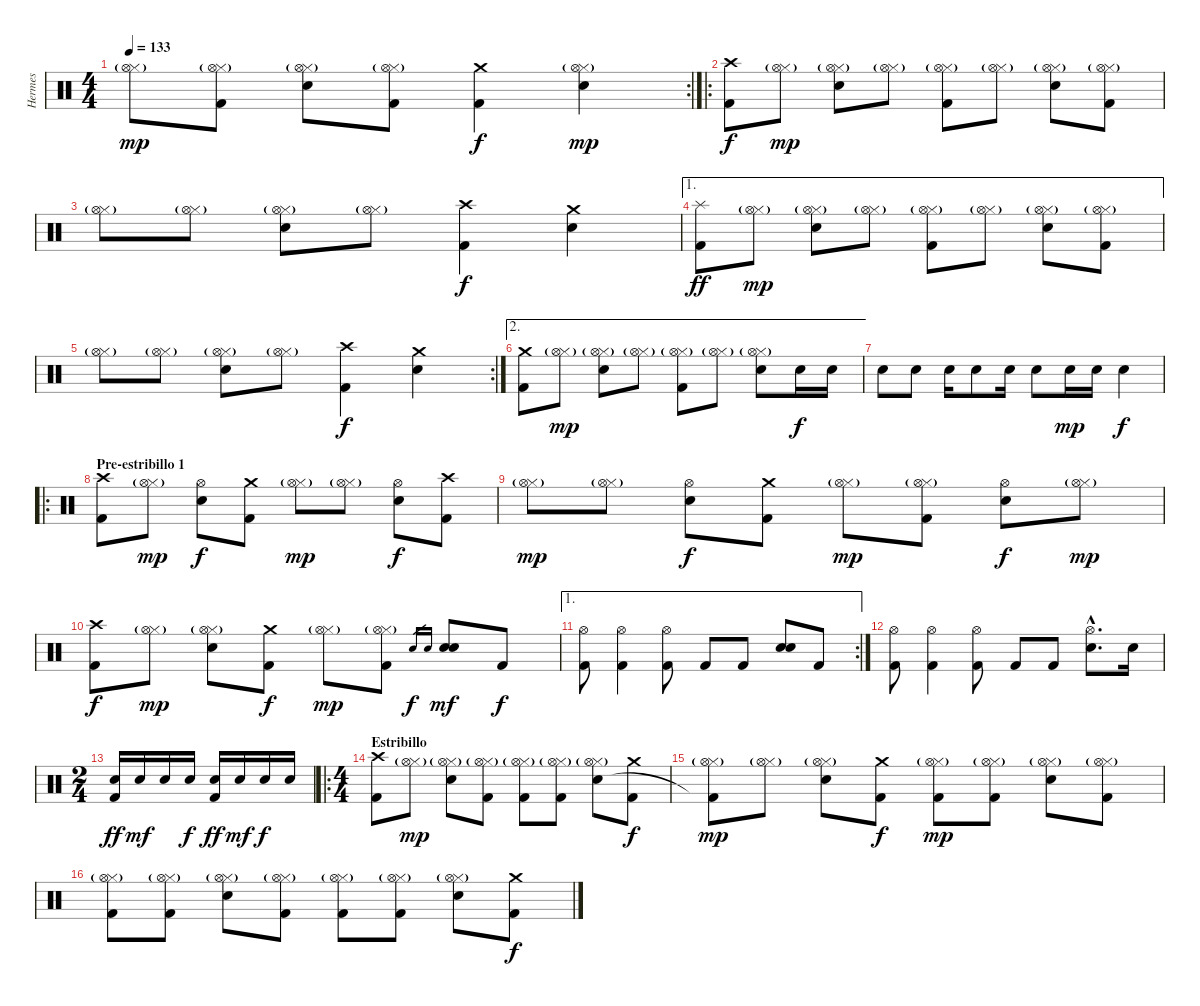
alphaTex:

\track ("Hermes" "Hermes") {instrument percussion}
\staff {score}
\articulation defaults
\rc 2
\ts (4 4)
\tempo 133
\clef neutral
\ks c
("Hi-Hat (closed)" "Hi-Hat (open)"{g}).8{dy mp} ("Hi-Hat (closed)" "Hi-Hat (open)"{g} "Kick (hit) 2").8 ("Hi-Hat (closed)" "Hi-Hat (open)"{g} "Snare (hit) 2").8 ("Hi-Hat (closed)" "Hi-Hat (open)"{g} "Kick (hit) 2").8 ("Crash medium (hit)" "Kick (hit) 2").4{dy f} ("Hi-Hat (closed)" "Hi-Hat (open)"{g} "Snare (hit) 2").4{dy mp} |
\ro
("Crash high (hit)" "Kick (hit) 2").8{dy f} ("Hi-Hat (closed)" "Hi-Hat (open)"{g}).8{dy mp} ("Hi-Hat (closed)" "Hi-Hat (open)"{g} "Snare (hit) 2").8 ("Hi-Hat (closed)" "Hi-Hat (open)"{g}).8 ("Hi-Hat (closed)" "Hi-Hat (open)"{g} "Kick (hit) 2").8 ("Hi-Hat (closed)" "Hi-Hat (open)"{g}).8 ("Hi-Hat (closed)" "Hi-Hat (open)"{g} "Snare (hit) 2").8 ("Hi-Hat (closed)" "Hi-Hat (open)"{g} "Kick (hit) 2").8 |
("Hi-Hat (closed)" "Hi-Hat (open)"{g}).8 ("Hi-Hat (closed)" "Hi-Hat (open)"{g}).8 ("Hi-Hat (closed)" "Hi-Hat (open)"{g} "Snare (hit) 2").8 ("Hi-Hat (closed)" "Hi-Hat (open)"{g}).8 ("Crash high (hit)" "Kick (hit) 2").4{dy f} ("Crash medium (hit)" "Snare (hit) 2").4 |
\ae 1
("Splash (hit)" "Kick (hit) 2").8{dy ff} ("Hi-Hat (closed)" "Hi-Hat (open)"{g}).8{dy mp} ("Hi-Hat (closed)" "Hi-Hat (open)"{g} "Snare (hit) 2").8 ("Hi-Hat (closed)" "Hi-Hat (open)"{g}).8 ("Hi-Hat (closed)" "Hi-Hat (open)"{g} "Kick (hit) 2").8 ("Hi-Hat (closed)" "Hi-Hat (open)"{g}).8 ("Hi-Hat (closed)" "Hi-Hat (open)"{g} "Snare (hit) 2").8 ("Hi-Hat (closed)" "Hi-Hat (open)"{g} "Kick (hit) 2").8 |
\rc 2
("Hi-Hat (closed)" "Hi-Hat (open)"{g}).8 ("Hi-Hat (closed)" "Hi-Hat (open)"{g}).8 ("Hi-Hat (closed)" "Hi-Hat (open)"{g} "Snare (hit) 2").8 ("Hi-Hat (closed)" "Hi-Hat (open)"{g}).8 ("Crash high (hit)" "Kick (hit) 2").4{dy f} ("Crash medium (hit)" "Snare (hit) 2").4 |
\ae 2
("Crash medium (hit)" "Kick (hit) 2").8 ("Hi-Hat (closed)" "Hi-Hat (open)"{g}).8{dy mp} ("Hi-Hat (closed)" "Hi-Hat (open)"{g} "Snare (hit) 2").8 ("Hi-Hat (closed)" "Hi-Hat (open)"{g}).8 ("Hi-Hat (closed)" "Hi-Hat (open)"{g} "Kick (hit) 2").8 ("Hi-Hat (closed)" "Hi-Hat (open)"{g}).8 ("Hi-Hat (closed)" "Hi-Hat (open)"{g} "Snare (hit) 2").8 "Snare (hit) 2".16{dy f} "Snare (hit) 2".16 |
"Snare (hit) 2".8 "Snare (hit) 2".8 "Snare (hit) 2".16 "Snare (hit) 2".8 "Snare (hit) 2".16 "Snare (hit) 2".8 "Snare (hit) 2".16{dy mp} "Snare (hit) 2".16 "Snare (hit) 2".4{dy f} |
\ro
\section ("" "Pre-estribillo 1")
("Crash high (hit)" "Kick (hit) 2").8 ("Hi-Hat (closed)" "Hi-Hat (open)"{g}).8{dy mp} ("Hi-Hat (open)" "Snare (hit) 2").8{dy f} ("Crash medium (hit)" "Kick (hit) 2").8 ("Hi-Hat (closed)" "Hi-Hat (open)"{g}).8{dy mp} ("Hi-Hat (closed)" "Hi-Hat (open)"{g}).8 ("Hi-Hat (open)" "Snare (hit) 2").8{dy f} ("Crash high (hit)" "Kick (hit) 2").8 |
("Hi-Hat (closed)" "Hi-Hat (open)"{g}).8{dy mp} ("Hi-Hat (closed)" "Hi-Hat (open)"{g}).8 ("Hi-Hat (open)" "Snare (hit) 2").8{dy f} ("Crash medium (hit)" "Kick (hit) 2").8 ("Hi-Hat (closed)" "Hi-Hat (open)"{g}).8{dy mp} ("Hi-Hat (closed)" "Hi-Hat (open)"{g} "Kick (hit) 2").8 ("Hi-Hat (open)" "Snare (hit) 2").8{dy f} ("Hi-Hat (closed)" "Hi-Hat (open)"{g}).8{dy mp} |
("Crash high (hit)" "Kick (hit) 2").8{dy f} ("Hi-Hat (closed)" "Hi-Hat (open)"{g}).8{dy mp} ("Hi-Hat (closed)" "Hi-Hat (open)"{g} "Snare (hit) 2").8 ("Crash medium (hit)" "Kick (hit) 2").8{dy f} ("Hi-Hat (closed)" "Hi-Hat (open)"{g}).8{dy mp} ("Hi-Hat (closed)" "Hi-Hat (open)"{g} "Kick (hit) 2").8 "Snare (hit) 2".16{gr dy f} "Snare (hit) 2".16{gr} ("Snare (hit) 2" "Snare (hit) 2").8{dy mf} "Kick (hit) 2".8{dy f} |
\ae 1
\rc 2
("Hi-Hat (open)" "Kick (hit) 2").8 ("Hi-Hat (open)" "Kick (hit) 2").4 ("Hi-Hat (open)" "Kick (hit) 2").8 "Kick (hit) 2".8 "Kick (hit) 2".8 ("Snare (hit) 2" "Snare (hit) 2").8 "Kick (hit) 2".8 |
("Hi-Hat (open)" "Kick (hit) 2").8 ("Hi-Hat (open)" "Kick (hit) 2").4 ("Hi-Hat (open)" "Kick (hit) 2").8 "Kick (hit) 2".8 "Kick (hit) 2".8 ("Hi-Hat (open)"{hac} "Snare (hit) 2"{hac}).8{d} "Snare (hit) 2".16 |
\ts (2 4)
("Snare (hit) 2" "Kick (hit) 2").16{dy ff} "Snare (hit) 2".16{dy mf} "Snare (hit) 2".16 "Snare (hit) 2".16{dy f} ("Snare (hit) 2" "Kick (hit) 2").16{dy ff} "Snare (hit) 2".16{dy mf} "Snare (hit) 2".16{dy f} "Snare (hit) 2".16 |
\ro
\ts (4 4)
\section ("" "Estribillo")
("Crash high (hit)" "Kick (hit) 2").8 ("Hi-Hat (closed)" "Hi-Hat (open)"{g}).8{dy mp} ("Hi-Hat (closed)" "Hi-Hat (open)"{g} "Snare (hit) 2").8 ("Hi-Hat (closed)" "Hi-Hat (open)"{g} "Kick (hit) 2").8 ("Hi-Hat (closed)" "Hi-Hat (open)"{g} "Kick (hit) 2").8 ("Hi-Hat (closed)" "Hi-Hat (open)"{g} "Kick (hit) 2").8 ("Hi-Hat (closed)" "Hi-Hat (open)"{g} "Snare (hit) 2").8 ("Crash medium (hit)" "Kick (hit) 2").8{dy f} |
("Hi-Hat (closed)" "Hi-Hat (open)"{g} "Kick (hit) 2"{t}).8{dy mp} ("Hi-Hat (closed)" "Hi-Hat (open)"{g}).8 ("Hi-Hat (closed)" "Hi-Hat (open)"{g} "Snare (hit) 2").8 ("Crash medium (hit)" "Kick (hit) 2").8{dy f} ("Hi-Hat (closed)" "Hi-Hat (open)"{g} "Kick (hit) 2").8{dy mp} ("Hi-Hat (closed)" "Hi-Hat (open)"{g} "Kick (hit) 2").8 ("Hi-Hat (closed)" "Hi-Hat (open)"{g} "Snare (hit) 2").8 ("Hi-Hat (closed)" "Hi-Hat (open)"{g} "Kick (hit) 2").8 |
("Hi-Hat (closed)" "Hi-Hat (open)"{g} "Kick (hit) 2").8 ("Hi-Hat (closed)" "Hi-Hat (open)"{g} "Kick (hit) 2").8 ("Hi-Hat (closed)" "Hi-Hat (open)"{g} "Snare (hit) 2").8 ("Hi-Hat (closed)" "Hi-Hat (open)"{g} "Kick (hit) 2").8 ("Hi-Hat (closed)" "Hi-Hat (open)"{g} "Kick (hit) 2").8 ("Hi-Hat (closed)" "Hi-Hat (open)"{g} "Kick (hit) 2").8 ("Hi-Hat (closed)" "Hi-Hat (open)"{g} "Snare (hit) 2").8 ("Crash medium (hit)" "Kick (hit) 2").8{dy f}
